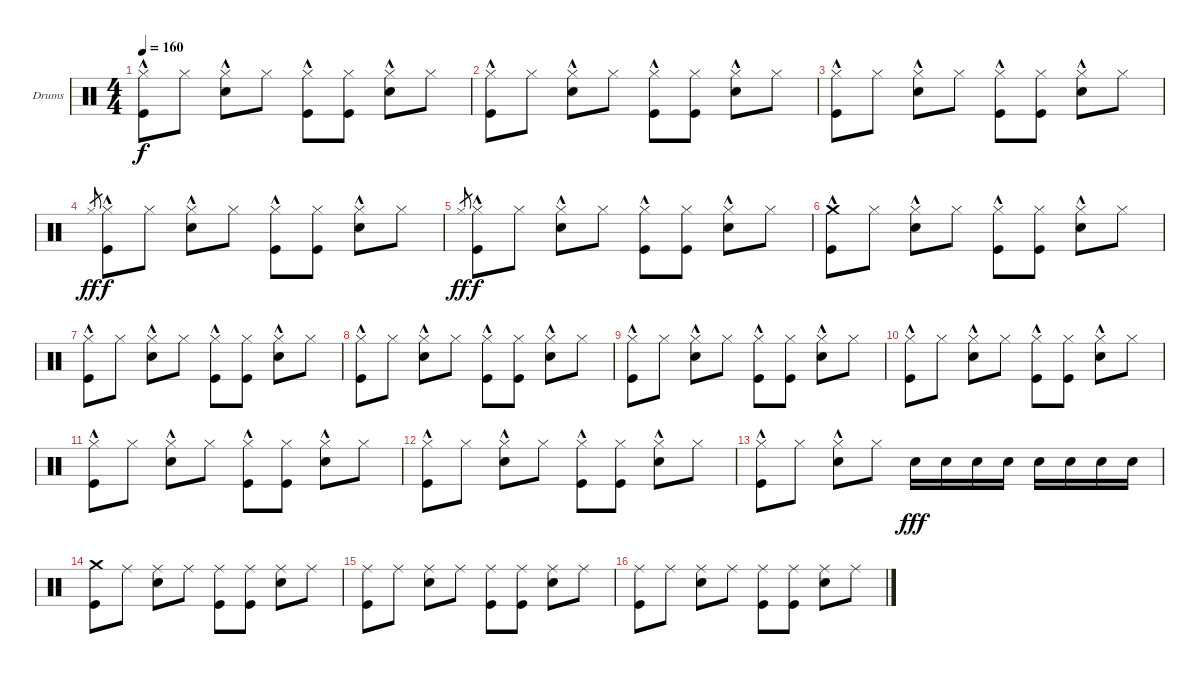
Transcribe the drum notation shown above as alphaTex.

\bracketExtendMode groupsimilarinstruments
\firstSystemTrackNameOrientation horizontal
\otherSystemsTrackNameOrientation horizontal
\track ("Drumkit" "Drums") {instrument percussion}
\staff {score}
\articulation defaults
\ts (4 4)
\tempo 160
\clef neutral
\ks c
("Kick (hit)" "Hi-Hat (closed)"{hac}).8{dy f} "Hi-Hat (closed)".8 ("Snare (hit) 2" "Hi-Hat (closed)"{hac}).8 "Hi-Hat (closed)".8 ("Kick (hit)" "Hi-Hat (closed)"{hac}).8 ("Kick (hit)" "Hi-Hat (closed)").8 ("Snare (hit) 2" "Hi-Hat (closed)"{hac}).8 "Hi-Hat (closed)".8 |
("Kick (hit)" "Hi-Hat (closed)"{hac}).8 "Hi-Hat (closed)".8 ("Snare (hit) 2" "Hi-Hat (closed)"{hac}).8 "Hi-Hat (closed)".8 ("Kick (hit)" "Hi-Hat (closed)"{hac}).8 ("Kick (hit)" "Hi-Hat (closed)").8 ("Snare (hit) 2" "Hi-Hat (closed)"{hac}).8 "Hi-Hat (closed)".8 |
("Kick (hit)" "Hi-Hat (closed)"{hac}).8 "Hi-Hat (closed)".8 ("Snare (hit) 2" "Hi-Hat (closed)"{hac}).8 "Hi-Hat (closed)".8 ("Kick (hit)" "Hi-Hat (closed)"{hac}).8 ("Kick (hit)" "Hi-Hat (closed)").8 ("Snare (hit) 2" "Hi-Hat (closed)"{hac}).8 "Hi-Hat (closed)".8 |
"Hi-Hat (closed)".8{gr dy ff} ("Kick (hit)" "Hi-Hat (closed)"{hac}).8{dy f} "Hi-Hat (closed)".8 ("Snare (hit) 2" "Hi-Hat (closed)"{hac}).8 "Hi-Hat (closed)".8 ("Kick (hit)" "Hi-Hat (closed)"{hac}).8 ("Kick (hit)" "Hi-Hat (closed)").8 ("Snare (hit) 2" "Hi-Hat (closed)"{hac}).8 "Hi-Hat (closed)".8 |
"Hi-Hat (closed)".8{gr dy ff} ("Kick (hit)" "Hi-Hat (closed)"{hac}).8{dy f} "Hi-Hat (closed)".8 ("Snare (hit) 2" "Hi-Hat (closed)"{hac}).8 "Hi-Hat (closed)".8 ("Kick (hit)" "Hi-Hat (closed)"{hac}).8 ("Kick (hit)" "Hi-Hat (closed)").8 ("Snare (hit) 2" "Hi-Hat (closed)"{hac}).8 "Hi-Hat (closed)".8 |
("Kick (hit)" "Crash medium (hit)"{hac}).8 "Hi-Hat (closed)".8 ("Snare (hit) 2" "Hi-Hat (closed)"{hac}).8 "Hi-Hat (closed)".8 ("Kick (hit)" "Hi-Hat (closed)"{hac}).8 ("Kick (hit)" "Hi-Hat (closed)").8 ("Snare (hit) 2" "Hi-Hat (closed)"{hac}).8 "Hi-Hat (closed)".8 |
("Kick (hit)" "Hi-Hat (closed)"{hac}).8 "Hi-Hat (closed)".8 ("Snare (hit) 2" "Hi-Hat (closed)"{hac}).8 "Hi-Hat (closed)".8 ("Kick (hit)" "Hi-Hat (closed)"{hac}).8 ("Kick (hit)" "Hi-Hat (closed)").8 ("Snare (hit) 2" "Hi-Hat (closed)"{hac}).8 "Hi-Hat (closed)".8 |
("Kick (hit)" "Hi-Hat (closed)"{hac}).8 "Hi-Hat (closed)".8 ("Snare (hit) 2" "Hi-Hat (closed)"{hac}).8 "Hi-Hat (closed)".8 ("Kick (hit)" "Hi-Hat (closed)"{hac}).8 ("Kick (hit)" "Hi-Hat (closed)").8 ("Snare (hit) 2" "Hi-Hat (closed)"{hac}).8 "Hi-Hat (closed)".8 |
("Kick (hit)" "Hi-Hat (closed)"{hac}).8 "Hi-Hat (closed)".8 ("Snare (hit) 2" "Hi-Hat (closed)"{hac}).8 "Hi-Hat (closed)".8 ("Kick (hit)" "Hi-Hat (closed)"{hac}).8 ("Kick (hit)" "Hi-Hat (closed)").8 ("Snare (hit) 2" "Hi-Hat (closed)"{hac}).8 "Hi-Hat (closed)".8 |
("Kick (hit)" "Hi-Hat (closed)"{hac}).8 "Hi-Hat (closed)".8 ("Snare (hit) 2" "Hi-Hat (closed)"{hac}).8 "Hi-Hat (closed)".8 ("Kick (hit)" "Hi-Hat (closed)"{hac}).8 ("Kick (hit)" "Hi-Hat (closed)").8 ("Snare (hit) 2" "Hi-Hat (closed)"{hac}).8 "Hi-Hat (closed)".8 |
("Kick (hit)" "Hi-Hat (closed)"{hac}).8 "Hi-Hat (closed)".8 ("Snare (hit) 2" "Hi-Hat (closed)"{hac}).8 "Hi-Hat (closed)".8 ("Kick (hit)" "Hi-Hat (closed)"{hac}).8 ("Kick (hit)" "Hi-Hat (closed)").8 ("Snare (hit) 2" "Hi-Hat (closed)"{hac}).8 "Hi-Hat (closed)".8 |
("Kick (hit)" "Hi-Hat (closed)"{hac}).8 "Hi-Hat (closed)".8 ("Snare (hit) 2" "Hi-Hat (closed)"{hac}).8 "Hi-Hat (closed)".8 ("Kick (hit)" "Hi-Hat (closed)"{hac}).8 ("Kick (hit)" "Hi-Hat (closed)").8 ("Snare (hit) 2" "Hi-Hat (closed)"{hac}).8 "Hi-Hat (closed)".8 |
("Kick (hit)" "Hi-Hat (closed)"{hac}).8 "Hi-Hat (closed)".8 ("Snare (hit) 2" "Hi-Hat (closed)"{hac}).8 "Hi-Hat (closed)".8 "Snare (hit) 2".16{dy fff} "Snare (hit) 2".16 "Snare (hit) 2".16 "Snare (hit) 2".16 "Snare (hit) 2".16 "Snare (hit) 2".16 "Snare (hit) 2".16 "Snare (hit) 2".16 |
("Kick (hit)" "Crash medium (hit)").8 "Ride (middle)".8 ("Ride (middle)" "Snare (hit) 2").8 "Ride (middle)".8 ("Ride (middle)" "Kick (hit)").8 ("Ride (middle)" "Kick (hit)").8 ("Ride (middle)" "Snare (hit) 2").8 "Ride (middle)".8 |
("Kick (hit)" "Ride (middle)").8 "Ride (middle)".8 ("Ride (middle)" "Snare (hit) 2").8 "Ride (middle)".8 ("Ride (middle)" "Kick (hit)").8 ("Ride (middle)" "Kick (hit)").8 ("Ride (middle)" "Snare (hit) 2").8 "Ride (middle)".8 |
("Kick (hit)" "Ride (middle)").8 "Ride (middle)".8 ("Ride (middle)" "Snare (hit) 2").8 "Ride (middle)".8 ("Ride (middle)" "Kick (hit)").8 ("Ride (middle)" "Kick (hit)").8 ("Ride (middle)" "Snare (hit) 2").8 "Ride (middle)".8
